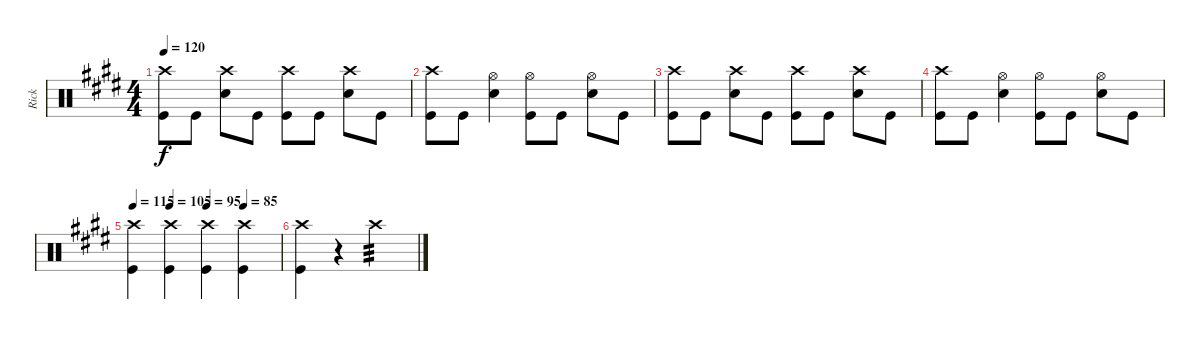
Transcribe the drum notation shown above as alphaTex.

\track ("Rick" "Rick") {instrument percussion}
\staff {score}
\articulation defaults
\ts (4 4)
\tempo 120
\clef neutral
\ks c#minor
("Crash high (hit)" "Kick (hit)").8{dy f} "Kick (hit)".8 ("Crash high (hit)" "Snare (hit) 2").8 "Kick (hit)".8 ("Crash high (hit)" "Kick (hit)").8 "Kick (hit)".8 ("Crash high (hit)" "Snare (hit) 2").8 "Kick (hit)".8 |
("Crash high (hit)" "Kick (hit)").8 "Kick (hit)".8 ("Hi-Hat (open)" "Snare (hit) 2").4 ("Hi-Hat (open)" "Kick (hit)").8 "Kick (hit)".8 ("Hi-Hat (open)" "Snare (hit) 2").8 "Kick (hit)".8 |
("Crash high (hit)" "Kick (hit)").8 "Kick (hit)".8 ("Crash high (hit)" "Snare (hit) 2").8 "Kick (hit)".8 ("Crash high (hit)" "Kick (hit)").8 "Kick (hit)".8 ("Crash high (hit)" "Snare (hit) 2").8 "Kick (hit)".8 |
("Crash high (hit)" "Kick (hit)").8 "Kick (hit)".8 ("Hi-Hat (open)" "Snare (hit) 2").4 ("Hi-Hat (open)" "Kick (hit)").8 "Kick (hit)".8 ("Hi-Hat (open)" "Snare (hit) 2").8 "Kick (hit)".8 |
\tempo 115
\tempo (105 0.25)
\tempo (95 0.5)
\tempo (85 0.75)
("Crash high (hit)" "Kick (hit)").4 ("Crash high (hit)" "Kick (hit)").4 ("Crash high (hit)" "Kick (hit)").4 ("Crash high (hit)" "Kick (hit)").4 |
("Crash high (hit)" "Kick (hit)").4 r.4 "Crash high (hit)".2{tp 3}
